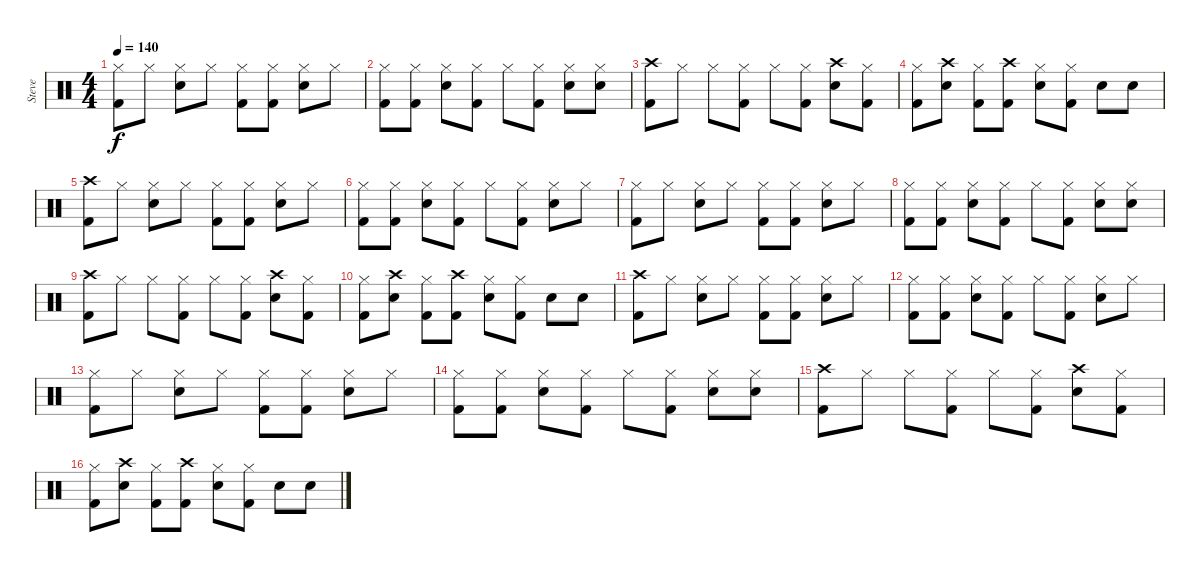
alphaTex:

\track ("Steve" "Steve") {instrument percussion}
\staff {score}
\articulation defaults
\ts (4 4)
\tempo 140
\clef neutral
\ks c
("Hi-Hat (closed)" "Kick (hit) 2").8{dy f} "Hi-Hat (closed)".8 ("Hi-Hat (closed)" "Snare (hit) 2").8 "Hi-Hat (closed)".8 ("Hi-Hat (closed)" "Kick (hit) 2").8 ("Hi-Hat (closed)" "Kick (hit) 2").8 ("Hi-Hat (closed)" "Snare (hit) 2").8 "Hi-Hat (closed)".8 |
("Hi-Hat (closed)" "Kick (hit) 2").8 ("Hi-Hat (closed)" "Kick (hit) 2").8 ("Hi-Hat (closed)" "Snare (hit) 2").8 ("Hi-Hat (closed)" "Kick (hit) 2").8 "Hi-Hat (closed)".8 ("Hi-Hat (closed)" "Kick (hit) 2").8 ("Hi-Hat (closed)" "Snare (hit) 2").8 ("Hi-Hat (closed)" "Snare (hit) 2").8 |
("Crash high (hit)" "Kick (hit) 2").8 "Hi-Hat (closed)".8 "Hi-Hat (closed)".8 ("Hi-Hat (closed)" "Kick (hit) 2").8 "Hi-Hat (closed)".8 ("Hi-Hat (closed)" "Kick (hit) 2").8 ("Crash high (hit)" "Snare (hit) 2").8 ("Hi-Hat (closed)" "Kick (hit) 2").8 |
("Hi-Hat (closed)" "Kick (hit) 2").8 ("Crash high (hit)" "Snare (hit) 2").8 ("Hi-Hat (closed)" "Kick (hit) 2").8 ("Crash high (hit)" "Kick (hit) 2").8 ("Hi-Hat (closed)" "Snare (hit) 2").8 ("Hi-Hat (closed)" "Kick (hit) 2").8 "Snare (hit) 2".8 "Snare (hit) 2".8 |
("Crash high (hit)" "Kick (hit) 2").8 "Hi-Hat (closed)".8 ("Hi-Hat (closed)" "Snare (hit) 2").8 "Hi-Hat (closed)".8 ("Hi-Hat (closed)" "Kick (hit) 2").8 ("Hi-Hat (closed)" "Kick (hit) 2").8 ("Hi-Hat (closed)" "Snare (hit) 2").8 "Hi-Hat (closed)".8 |
("Hi-Hat (closed)" "Kick (hit) 2").8 ("Hi-Hat (closed)" "Kick (hit) 2").8 ("Hi-Hat (closed)" "Snare (hit) 2").8 ("Hi-Hat (closed)" "Kick (hit) 2").8 "Hi-Hat (closed)".8 ("Hi-Hat (closed)" "Kick (hit) 2").8 ("Hi-Hat (closed)" "Snare (hit) 2").8 "Hi-Hat (closed)".8 |
("Hi-Hat (closed)" "Kick (hit) 2").8 "Hi-Hat (closed)".8 ("Hi-Hat (closed)" "Snare (hit) 2").8 "Hi-Hat (closed)".8 ("Hi-Hat (closed)" "Kick (hit) 2").8 ("Hi-Hat (closed)" "Kick (hit) 2").8 ("Hi-Hat (closed)" "Snare (hit) 2").8 "Hi-Hat (closed)".8 |
("Hi-Hat (closed)" "Kick (hit) 2").8 ("Hi-Hat (closed)" "Kick (hit) 2").8 ("Hi-Hat (closed)" "Snare (hit) 2").8 ("Hi-Hat (closed)" "Kick (hit) 2").8 "Hi-Hat (closed)".8 ("Hi-Hat (closed)" "Kick (hit) 2").8 ("Hi-Hat (closed)" "Snare (hit) 2").8 ("Hi-Hat (closed)" "Snare (hit) 2").8 |
("Crash high (hit)" "Kick (hit) 2").8 "Hi-Hat (closed)".8 "Hi-Hat (closed)".8 ("Hi-Hat (closed)" "Kick (hit) 2").8 "Hi-Hat (closed)".8 ("Hi-Hat (closed)" "Kick (hit) 2").8 ("Crash high (hit)" "Snare (hit) 2").8 ("Hi-Hat (closed)" "Kick (hit) 2").8 |
("Hi-Hat (closed)" "Kick (hit) 2").8 ("Crash high (hit)" "Snare (hit) 2").8 ("Hi-Hat (closed)" "Kick (hit) 2").8 ("Crash high (hit)" "Kick (hit) 2").8 ("Hi-Hat (closed)" "Snare (hit) 2").8 ("Hi-Hat (closed)" "Kick (hit) 2").8 "Snare (hit) 2".8 "Snare (hit) 2".8 |
("Crash high (hit)" "Kick (hit) 2").8 "Hi-Hat (closed)".8 ("Hi-Hat (closed)" "Snare (hit) 2").8 "Hi-Hat (closed)".8 ("Hi-Hat (closed)" "Kick (hit) 2").8 ("Hi-Hat (closed)" "Kick (hit) 2").8 ("Hi-Hat (closed)" "Snare (hit) 2").8 "Hi-Hat (closed)".8 |
("Hi-Hat (closed)" "Kick (hit) 2").8 ("Hi-Hat (closed)" "Kick (hit) 2").8 ("Hi-Hat (closed)" "Snare (hit) 2").8 ("Hi-Hat (closed)" "Kick (hit) 2").8 "Hi-Hat (closed)".8 ("Hi-Hat (closed)" "Kick (hit) 2").8 ("Hi-Hat (closed)" "Snare (hit) 2").8 "Hi-Hat (closed)".8 |
("Hi-Hat (closed)" "Kick (hit) 2").8 "Hi-Hat (closed)".8 ("Hi-Hat (closed)" "Snare (hit) 2").8 "Hi-Hat (closed)".8 ("Hi-Hat (closed)" "Kick (hit) 2").8 ("Hi-Hat (closed)" "Kick (hit) 2").8 ("Hi-Hat (closed)" "Snare (hit) 2").8 "Hi-Hat (closed)".8 |
("Hi-Hat (closed)" "Kick (hit) 2").8 ("Hi-Hat (closed)" "Kick (hit) 2").8 ("Hi-Hat (closed)" "Snare (hit) 2").8 ("Hi-Hat (closed)" "Kick (hit) 2").8 "Hi-Hat (closed)".8 ("Hi-Hat (closed)" "Kick (hit) 2").8 ("Hi-Hat (closed)" "Snare (hit) 2").8 ("Hi-Hat (closed)" "Snare (hit) 2").8 |
("Crash high (hit)" "Kick (hit) 2").8 "Hi-Hat (closed)".8 "Hi-Hat (closed)".8 ("Hi-Hat (closed)" "Kick (hit) 2").8 "Hi-Hat (closed)".8 ("Hi-Hat (closed)" "Kick (hit) 2").8 ("Crash high (hit)" "Snare (hit) 2").8 ("Hi-Hat (closed)" "Kick (hit) 2").8 |
("Hi-Hat (closed)" "Kick (hit) 2").8 ("Crash high (hit)" "Snare (hit) 2").8 ("Hi-Hat (closed)" "Kick (hit) 2").8 ("Crash high (hit)" "Kick (hit) 2").8 ("Hi-Hat (closed)" "Snare (hit) 2").8 ("Hi-Hat (closed)" "Kick (hit) 2").8 "Snare (hit) 2".8 "Snare (hit) 2".8
